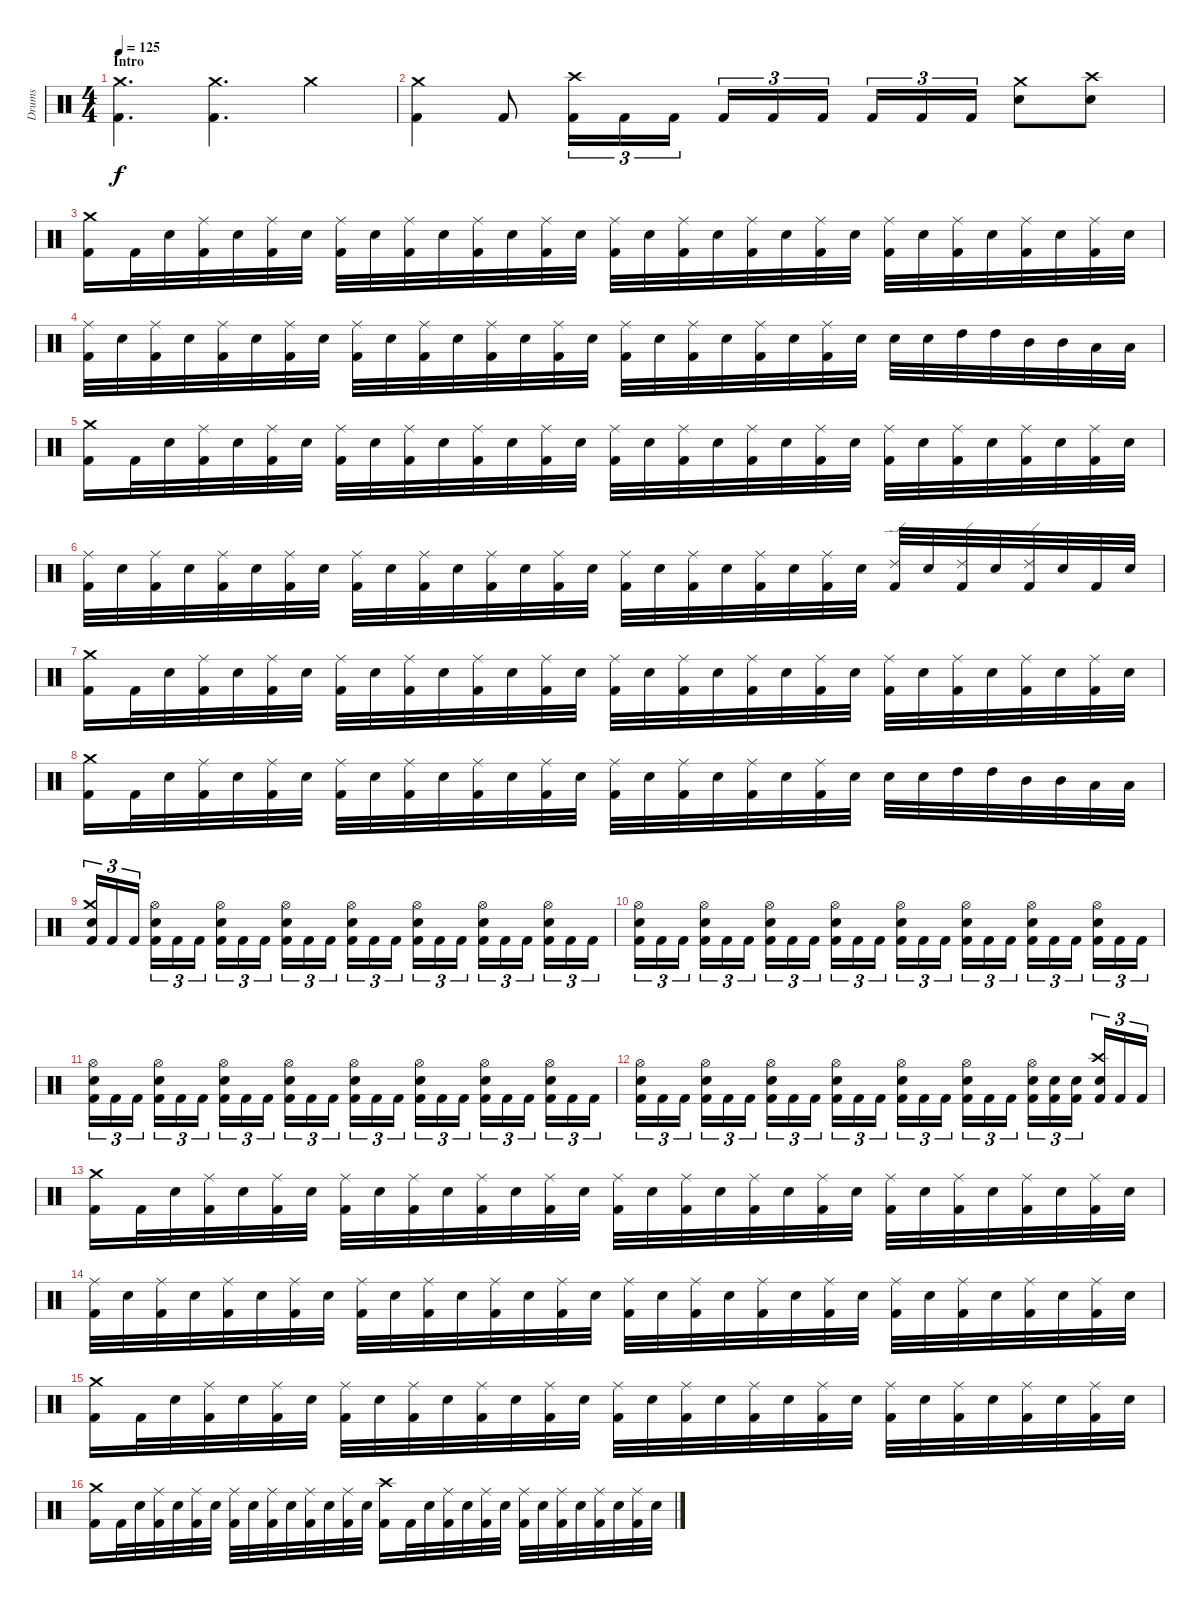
\track ("Drums" "Drums") {instrument percussion}
\staff {score}
\articulation defaults
\ts (4 4)
\section ("" "Intro")
\tempo 125
\clef neutral
\ks c
("Kick (hit) 2" "Crash medium (hit)").4{d dy f} ("Kick (hit) 2" "Crash medium (hit)").4{d} "Crash medium (hit)".4 |
("Kick (hit) 2" "Crash medium (hit)").4 "Kick (hit) 2".8 ("Kick (hit) 2" "Crash high (hit)").16{tu (3 2)} "Kick (hit) 2".16{tu (3 2)} "Kick (hit) 2".16{tu (3 2)} "Kick (hit) 2".16{tu (3 2)} "Kick (hit) 2".16{tu (3 2)} "Kick (hit) 2".16{tu (3 2)} "Kick (hit) 2".16{tu (3 2)} "Kick (hit) 2".16{tu (3 2)} "Kick (hit) 2".16{tu (3 2)} ("Electric Snare (hit)" "Crash medium (hit)").8 ("Electric Snare (hit)" "Crash high (hit)").8 |
("Kick (hit) 2" "Crash medium (hit)").16 "Kick (hit) 2".32 "Electric Snare (hit)".32 ("Kick (hit) 2" "Ride (middle)").32 "Electric Snare (hit)".32 ("Kick (hit) 2" "Ride (middle)").32 "Electric Snare (hit)".32 ("Kick (hit) 2" "Ride (middle)").32 "Electric Snare (hit)".32 ("Kick (hit) 2" "Ride (middle)").32 "Electric Snare (hit)".32 ("Kick (hit) 2" "Ride (middle)").32 "Electric Snare (hit)".32 ("Kick (hit) 2" "Ride (middle)").32 "Electric Snare (hit)".32 ("Kick (hit) 2" "Ride (middle)").32 "Electric Snare (hit)".32 ("Kick (hit) 2" "Ride (middle)").32 "Electric Snare (hit)".32 ("Kick (hit) 2" "Ride (middle)").32 "Electric Snare (hit)".32 ("Kick (hit) 2" "Ride (middle)").32 "Electric Snare (hit)".32 ("Kick (hit) 2" "Ride (middle)").32 "Electric Snare (hit)".32 ("Kick (hit) 2" "Ride (middle)").32 "Electric Snare (hit)".32 ("Kick (hit) 2" "Ride (middle)").32 "Electric Snare (hit)".32 ("Kick (hit) 2" "Ride (middle)").32 "Electric Snare (hit)".32 |
("Kick (hit) 2" "Ride (middle)").32 "Electric Snare (hit)".32 ("Kick (hit) 2" "Ride (middle)").32 "Electric Snare (hit)".32 ("Kick (hit) 2" "Ride (middle)").32 "Electric Snare (hit)".32 ("Kick (hit) 2" "Ride (middle)").32 "Electric Snare (hit)".32 ("Kick (hit) 2" "Ride (middle)").32 "Electric Snare (hit)".32 ("Kick (hit) 2" "Ride (middle)").32 "Electric Snare (hit)".32 ("Kick (hit) 2" "Ride (middle)").32 "Electric Snare (hit)".32 ("Kick (hit) 2" "Ride (middle)").32 "Electric Snare (hit)".32 ("Kick (hit) 2" "Ride (middle)").32 "Electric Snare (hit)".32 ("Kick (hit) 2" "Ride (middle)").32 "Electric Snare (hit)".32 ("Kick (hit) 2" "Ride (middle)").32 "Electric Snare (hit)".32 ("Kick (hit) 2" "Ride (middle)").32 "Electric Snare (hit)".32 "Electric Snare (hit)".32 "Electric Snare (hit)".32 "High Tom (hit)".32 "High Tom (hit)".32 "Mid Tom (hit)".32 "Mid Tom (hit)".32 "Low Tom (hit)".32 "Low Tom (hit)".32 |
("Kick (hit) 2" "Crash medium (hit)").16 "Kick (hit) 2".32 "Electric Snare (hit)".32 ("Kick (hit) 2" "Ride (middle)").32 "Electric Snare (hit)".32 ("Kick (hit) 2" "Ride (middle)").32 "Electric Snare (hit)".32 ("Kick (hit) 2" "Ride (middle)").32 "Electric Snare (hit)".32 ("Kick (hit) 2" "Ride (middle)").32 "Electric Snare (hit)".32 ("Kick (hit) 2" "Ride (middle)").32 "Electric Snare (hit)".32 ("Kick (hit) 2" "Ride (middle)").32 "Electric Snare (hit)".32 ("Kick (hit) 2" "Ride (middle)").32 "Electric Snare (hit)".32 ("Kick (hit) 2" "Ride (middle)").32 "Electric Snare (hit)".32 ("Kick (hit) 2" "Ride (middle)").32 "Electric Snare (hit)".32 ("Kick (hit) 2" "Ride (middle)").32 "Electric Snare (hit)".32 ("Kick (hit) 2" "Ride (middle)").32 "Electric Snare (hit)".32 ("Kick (hit) 2" "Ride (middle)").32 "Electric Snare (hit)".32 ("Kick (hit) 2" "Ride (middle)").32 "Electric Snare (hit)".32 ("Kick (hit) 2" "Ride (middle)").32 "Electric Snare (hit)".32 |
("Kick (hit) 2" "Ride (middle)").32 "Electric Snare (hit)".32 ("Kick (hit) 2" "Ride (middle)").32 "Electric Snare (hit)".32 ("Kick (hit) 2" "Ride (middle)").32 "Electric Snare (hit)".32 ("Kick (hit) 2" "Ride (middle)").32 "Electric Snare (hit)".32 ("Kick (hit) 2" "Ride (middle)").32 "Electric Snare (hit)".32 ("Kick (hit) 2" "Ride (middle)").32 "Electric Snare (hit)".32 ("Kick (hit) 2" "Ride (middle)").32 "Electric Snare (hit)".32 ("Kick (hit) 2" "Ride (middle)").32 "Electric Snare (hit)".32 ("Kick (hit) 2" "Ride (middle)").32 "Electric Snare (hit)".32 ("Kick (hit) 2" "Ride (middle)").32 "Electric Snare (hit)".32 ("Kick (hit) 2" "Ride (middle)").32 "Electric Snare (hit)".32 ("Kick (hit) 2" "Ride (middle)").32 "Electric Snare (hit)".32 ("Kick (hit) 2" "Ride (edge) 2").32 "Electric Snare (hit)".32 ("Kick (hit) 2" "Ride (edge) 2").32 "Electric Snare (hit)".32 ("Kick (hit) 2" "Ride (edge) 2").32 "Electric Snare (hit)".32 "Kick (hit) 2".32 "Electric Snare (hit)".32 |
("Kick (hit) 2" "Crash medium (hit)").16 "Kick (hit) 2".32 "Electric Snare (hit)".32 ("Kick (hit) 2" "Ride (middle)").32 "Electric Snare (hit)".32 ("Kick (hit) 2" "Ride (middle)").32 "Electric Snare (hit)".32 ("Kick (hit) 2" "Ride (middle)").32 "Electric Snare (hit)".32 ("Kick (hit) 2" "Ride (middle)").32 "Electric Snare (hit)".32 ("Kick (hit) 2" "Ride (middle)").32 "Electric Snare (hit)".32 ("Kick (hit) 2" "Ride (middle)").32 "Electric Snare (hit)".32 ("Kick (hit) 2" "Ride (middle)").32 "Electric Snare (hit)".32 ("Kick (hit) 2" "Ride (middle)").32 "Electric Snare (hit)".32 ("Kick (hit) 2" "Ride (middle)").32 "Electric Snare (hit)".32 ("Kick (hit) 2" "Ride (middle)").32 "Electric Snare (hit)".32 ("Kick (hit) 2" "Ride (middle)").32 "Electric Snare (hit)".32 ("Kick (hit) 2" "Ride (middle)").32 "Electric Snare (hit)".32 ("Kick (hit) 2" "Ride (middle)").32 "Electric Snare (hit)".32 ("Kick (hit) 2" "Ride (middle)").32 "Electric Snare (hit)".32 |
("Kick (hit) 2" "Crash medium (hit)").16 "Kick (hit) 2".32 "Electric Snare (hit)".32 ("Kick (hit) 2" "Ride (middle)").32 "Electric Snare (hit)".32 ("Kick (hit) 2" "Ride (middle)").32 "Electric Snare (hit)".32 ("Kick (hit) 2" "Ride (middle)").32 "Electric Snare (hit)".32 ("Kick (hit) 2" "Ride (middle)").32 "Electric Snare (hit)".32 ("Kick (hit) 2" "Ride (middle)").32 "Electric Snare (hit)".32 ("Kick (hit) 2" "Ride (middle)").32 "Electric Snare (hit)".32 ("Kick (hit) 2" "Ride (middle)").32 "Electric Snare (hit)".32 ("Kick (hit) 2" "Ride (middle)").32 "Electric Snare (hit)".32 ("Kick (hit) 2" "Ride (middle)").32 "Electric Snare (hit)".32 ("Kick (hit) 2" "Ride (middle)").32 "Electric Snare (hit)".32 "Electric Snare (hit)".32 "Electric Snare (hit)".32 "High Tom (hit)".32 "High Tom (hit)".32 "Mid Tom (hit)".32 "Mid Tom (hit)".32 "Low Tom (hit)".32 "Low Tom (hit)".32 |
("Kick (hit) 2" "Electric Snare (hit)" "Crash medium (hit)").16{tu (3 2)} "Kick (hit) 2".16{tu (3 2)} "Kick (hit) 2".16{tu (3 2)} ("Kick (hit) 2" "Electric Snare (hit)" "Hi-Hat (open)").16{tu (3 2)} "Kick (hit) 2".16{tu (3 2)} "Kick (hit) 2".16{tu (3 2)} ("Kick (hit) 2" "Electric Snare (hit)" "Hi-Hat (open)").16{tu (3 2)} "Kick (hit) 2".16{tu (3 2)} "Kick (hit) 2".16{tu (3 2)} ("Kick (hit) 2" "Electric Snare (hit)" "Hi-Hat (open)").16{tu (3 2)} "Kick (hit) 2".16{tu (3 2)} "Kick (hit) 2".16{tu (3 2)} ("Kick (hit) 2" "Electric Snare (hit)" "Hi-Hat (open)").16{tu (3 2)} "Kick (hit) 2".16{tu (3 2)} "Kick (hit) 2".16{tu (3 2)} ("Kick (hit) 2" "Electric Snare (hit)" "Hi-Hat (open)").16{tu (3 2)} "Kick (hit) 2".16{tu (3 2)} "Kick (hit) 2".16{tu (3 2)} ("Kick (hit) 2" "Electric Snare (hit)" "Hi-Hat (open)").16{tu (3 2)} "Kick (hit) 2".16{tu (3 2)} "Kick (hit) 2".16{tu (3 2)} ("Kick (hit) 2" "Electric Snare (hit)" "Hi-Hat (open)").16{tu (3 2)} "Kick (hit) 2".16{tu (3 2)} "Kick (hit) 2".16{tu (3 2)} |
("Kick (hit) 2" "Electric Snare (hit)" "Hi-Hat (open)").16{tu (3 2)} "Kick (hit) 2".16{tu (3 2)} "Kick (hit) 2".16{tu (3 2)} ("Kick (hit) 2" "Electric Snare (hit)" "Hi-Hat (open)").16{tu (3 2)} "Kick (hit) 2".16{tu (3 2)} "Kick (hit) 2".16{tu (3 2)} ("Kick (hit) 2" "Electric Snare (hit)" "Hi-Hat (open)").16{tu (3 2)} "Kick (hit) 2".16{tu (3 2)} "Kick (hit) 2".16{tu (3 2)} ("Kick (hit) 2" "Electric Snare (hit)" "Hi-Hat (open)").16{tu (3 2)} "Kick (hit) 2".16{tu (3 2)} "Kick (hit) 2".16{tu (3 2)} ("Kick (hit) 2" "Electric Snare (hit)" "Hi-Hat (open)").16{tu (3 2)} "Kick (hit) 2".16{tu (3 2)} "Kick (hit) 2".16{tu (3 2)} ("Kick (hit) 2" "Electric Snare (hit)" "Hi-Hat (open)").16{tu (3 2)} "Kick (hit) 2".16{tu (3 2)} "Kick (hit) 2".16{tu (3 2)} ("Kick (hit) 2" "Electric Snare (hit)" "Hi-Hat (open)").16{tu (3 2)} "Kick (hit) 2".16{tu (3 2)} "Kick (hit) 2".16{tu (3 2)} ("Kick (hit) 2" "Electric Snare (hit)" "Hi-Hat (open)").16{tu (3 2)} "Kick (hit) 2".16{tu (3 2)} "Kick (hit) 2".16{tu (3 2)} |
("Kick (hit) 2" "Electric Snare (hit)" "Hi-Hat (open)").16{tu (3 2)} "Kick (hit) 2".16{tu (3 2)} "Kick (hit) 2".16{tu (3 2)} ("Kick (hit) 2" "Electric Snare (hit)" "Hi-Hat (open)").16{tu (3 2)} "Kick (hit) 2".16{tu (3 2)} "Kick (hit) 2".16{tu (3 2)} ("Kick (hit) 2" "Electric Snare (hit)" "Hi-Hat (open)").16{tu (3 2)} "Kick (hit) 2".16{tu (3 2)} "Kick (hit) 2".16{tu (3 2)} ("Kick (hit) 2" "Electric Snare (hit)" "Hi-Hat (open)").16{tu (3 2)} "Kick (hit) 2".16{tu (3 2)} "Kick (hit) 2".16{tu (3 2)} ("Kick (hit) 2" "Electric Snare (hit)" "Hi-Hat (open)").16{tu (3 2)} "Kick (hit) 2".16{tu (3 2)} "Kick (hit) 2".16{tu (3 2)} ("Kick (hit) 2" "Electric Snare (hit)" "Hi-Hat (open)").16{tu (3 2)} "Kick (hit) 2".16{tu (3 2)} "Kick (hit) 2".16{tu (3 2)} ("Kick (hit) 2" "Electric Snare (hit)" "Hi-Hat (open)").16{tu (3 2)} "Kick (hit) 2".16{tu (3 2)} "Kick (hit) 2".16{tu (3 2)} ("Kick (hit) 2" "Electric Snare (hit)" "Hi-Hat (open)").16{tu (3 2)} "Kick (hit) 2".16{tu (3 2)} "Kick (hit) 2".16{tu (3 2)} |
("Kick (hit) 2" "Electric Snare (hit)" "Hi-Hat (open)").16{tu (3 2)} "Kick (hit) 2".16{tu (3 2)} "Kick (hit) 2".16{tu (3 2)} ("Kick (hit) 2" "Electric Snare (hit)" "Hi-Hat (open)").16{tu (3 2)} "Kick (hit) 2".16{tu (3 2)} "Kick (hit) 2".16{tu (3 2)} ("Kick (hit) 2" "Electric Snare (hit)" "Hi-Hat (open)").16{tu (3 2)} "Kick (hit) 2".16{tu (3 2)} "Kick (hit) 2".16{tu (3 2)} ("Kick (hit) 2" "Electric Snare (hit)" "Hi-Hat (open)").16{tu (3 2)} "Kick (hit) 2".16{tu (3 2)} "Kick (hit) 2".16{tu (3 2)} ("Kick (hit) 2" "Electric Snare (hit)" "Hi-Hat (open)").16{tu (3 2)} "Kick (hit) 2".16{tu (3 2)} "Kick (hit) 2".16{tu (3 2)} ("Kick (hit) 2" "Electric Snare (hit)" "Hi-Hat (open)").16{tu (3 2)} "Kick (hit) 2".16{tu (3 2)} "Kick (hit) 2".16{tu (3 2)} ("Kick (hit) 2" "Electric Snare (hit)" "Hi-Hat (open)").16{tu (3 2)} ("Kick (hit) 2" "Electric Snare (hit)").16{tu (3 2)} ("Kick (hit) 2" "Electric Snare (hit)").16{tu (3 2)} ("Kick (hit) 2" "Electric Snare (hit)" "Crash high (hit)").16{tu (3 2)} "Kick (hit) 2".16{tu (3 2)} "Kick (hit) 2".16{tu (3 2)} |
("Kick (hit) 2" "Crash medium (hit)").16 "Kick (hit) 2".32 "Electric Snare (hit)".32 ("Kick (hit) 2" "Ride (middle)").32 "Electric Snare (hit)".32 ("Kick (hit) 2" "Ride (middle)").32 "Electric Snare (hit)".32 ("Kick (hit) 2" "Ride (middle)").32 "Electric Snare (hit)".32 ("Kick (hit) 2" "Ride (middle)").32 "Electric Snare (hit)".32 ("Kick (hit) 2" "Ride (middle)").32 "Electric Snare (hit)".32 ("Kick (hit) 2" "Ride (middle)").32 "Electric Snare (hit)".32 ("Kick (hit) 2" "Ride (middle)").32 "Electric Snare (hit)".32 ("Kick (hit) 2" "Ride (middle)").32 "Electric Snare (hit)".32 ("Kick (hit) 2" "Ride (middle)").32 "Electric Snare (hit)".32 ("Kick (hit) 2" "Ride (middle)").32 "Electric Snare (hit)".32 ("Kick (hit) 2" "Ride (middle)").32 "Electric Snare (hit)".32 ("Kick (hit) 2" "Ride (middle)").32 "Electric Snare (hit)".32 ("Kick (hit) 2" "Ride (middle)").32 "Electric Snare (hit)".32 ("Kick (hit) 2" "Ride (middle)").32 "Electric Snare (hit)".32 |
("Kick (hit) 2" "Ride (middle)").32 "Electric Snare (hit)".32 ("Kick (hit) 2" "Ride (middle)").32 "Electric Snare (hit)".32 ("Kick (hit) 2" "Ride (middle)").32 "Electric Snare (hit)".32 ("Kick (hit) 2" "Ride (middle)").32 "Electric Snare (hit)".32 ("Kick (hit) 2" "Ride (middle)").32 "Electric Snare (hit)".32 ("Kick (hit) 2" "Ride (middle)").32 "Electric Snare (hit)".32 ("Kick (hit) 2" "Ride (middle)").32 "Electric Snare (hit)".32 ("Kick (hit) 2" "Ride (middle)").32 "Electric Snare (hit)".32 ("Kick (hit) 2" "Ride (middle)").32 "Electric Snare (hit)".32 ("Kick (hit) 2" "Ride (middle)").32 "Electric Snare (hit)".32 ("Kick (hit) 2" "Ride (middle)").32 "Electric Snare (hit)".32 ("Kick (hit) 2" "Ride (middle)").32 "Electric Snare (hit)".32 ("Kick (hit) 2" "Ride (middle)").32 "Electric Snare (hit)".32 ("Kick (hit) 2" "Ride (middle)").32 "Electric Snare (hit)".32 ("Kick (hit) 2" "Ride (middle)").32 "Electric Snare (hit)".32 ("Kick (hit) 2" "Ride (middle)").32 "Electric Snare (hit)".32 |
("Kick (hit) 2" "Crash medium (hit)").16 "Kick (hit) 2".32 "Electric Snare (hit)".32 ("Kick (hit) 2" "Ride (middle)").32 "Electric Snare (hit)".32 ("Kick (hit) 2" "Ride (middle)").32 "Electric Snare (hit)".32 ("Kick (hit) 2" "Ride (middle)").32 "Electric Snare (hit)".32 ("Kick (hit) 2" "Ride (middle)").32 "Electric Snare (hit)".32 ("Kick (hit) 2" "Ride (middle)").32 "Electric Snare (hit)".32 ("Kick (hit) 2" "Ride (middle)").32 "Electric Snare (hit)".32 ("Kick (hit) 2" "Ride (middle)").32 "Electric Snare (hit)".32 ("Kick (hit) 2" "Ride (middle)").32 "Electric Snare (hit)".32 ("Kick (hit) 2" "Ride (middle)").32 "Electric Snare (hit)".32 ("Kick (hit) 2" "Ride (middle)").32 "Electric Snare (hit)".32 ("Kick (hit) 2" "Ride (middle)").32 "Electric Snare (hit)".32 ("Kick (hit) 2" "Ride (middle)").32 "Electric Snare (hit)".32 ("Kick (hit) 2" "Ride (middle)").32 "Electric Snare (hit)".32 ("Kick (hit) 2" "Ride (middle)").32 "Electric Snare (hit)".32 |
("Kick (hit) 2" "Crash medium (hit)").16 "Kick (hit) 2".32 "Electric Snare (hit)".32 ("Kick (hit) 2" "Ride (middle)").32 "Electric Snare (hit)".32 ("Kick (hit) 2" "Ride (middle)").32 "Electric Snare (hit)".32 ("Kick (hit) 2" "Ride (middle)").32 "Electric Snare (hit)".32 ("Kick (hit) 2" "Ride (middle)").32 "Electric Snare (hit)".32 ("Kick (hit) 2" "Ride (middle)").32 "Electric Snare (hit)".32 ("Kick (hit) 2" "Ride (middle)").32 "Electric Snare (hit)".32 ("Kick (hit) 2" "Crash high (hit)").16 "Kick (hit) 2".32 "Electric Snare (hit)".32 ("Kick (hit) 2" "Ride (middle)").32 "Electric Snare (hit)".32 ("Kick (hit) 2" "Ride (middle)").32 "Electric Snare (hit)".32 ("Kick (hit) 2" "Ride (middle)").32 "Electric Snare (hit)".32 ("Kick (hit) 2" "Ride (middle)").32 "Electric Snare (hit)".32 ("Kick (hit) 2" "Ride (middle)").32 "Electric Snare (hit)".32 ("Kick (hit) 2" "Ride (middle)").32 "Electric Snare (hit)".32
